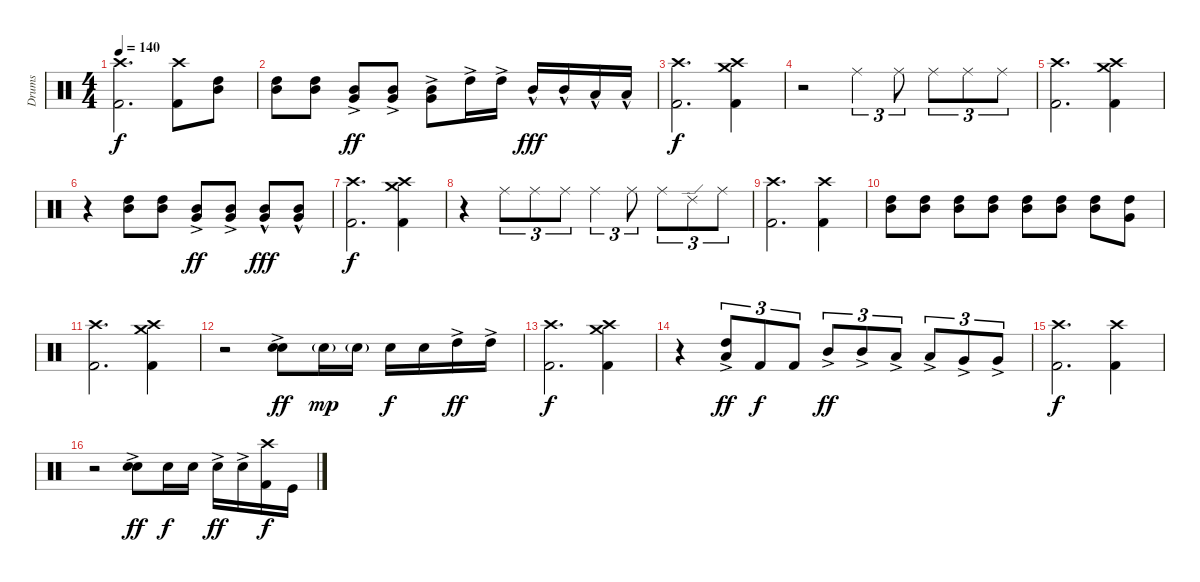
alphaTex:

\track ("Drums" "Drums") {instrument percussion}
\staff {score}
\articulation defaults
\ts (4 4)
\tempo 140
\clef neutral
\ks c
("Crash high (hit)" "Kick (hit) 2").2{d dy f} ("Crash high (hit)" "Kick (hit) 2").8 ("High Tom (hit)" "Mid Tom (hit)").8 |
("High Tom (hit)" "Mid Tom (hit)").8 ("High Tom (hit)" "Mid Tom (hit)").8 ("Mid Tom (hit)"{ac} "Very Low Tom (hit)"{ac}).8{dy ff} ("Mid Tom (hit)"{ac} "Very Low Tom (hit)"{ac}).8 ("Mid Tom (hit)"{ac} "Very Low Tom (hit)"{ac}).8 "High Tom (hit)"{ac}.16 "High Tom (hit)"{ac}.16 "Mid Tom (hit)"{hac}.16{dy fff} "Mid Tom (hit)"{hac}.16 "Low Tom (hit)"{hac}.16 "Low Tom (hit)"{hac}.16 |
("Crash high (hit)" "Kick (hit) 2").2{d dy f} ("Crash medium (hit)" "Crash high (hit)" "Kick (hit) 2").4 |
r.2 "Ride (middle)".4{tu (3 2)} "Ride (middle)".8{tu (3 2)} "Ride (middle)".8{tu (3 2)} "Ride (middle)".8{tu (3 2)} "Ride (middle)".8{tu (3 2)} |
("Crash high (hit)" "Kick (hit) 2").2{d} ("Crash medium (hit)" "Crash high (hit)" "Kick (hit) 2").4 |
r.4 ("High Tom (hit)" "Mid Tom (hit)").8 ("High Tom (hit)" "Mid Tom (hit)").8 ("Mid Tom (hit)"{ac} "Very Low Tom (hit)"{ac}).8{dy ff} ("Mid Tom (hit)"{ac} "Very Low Tom (hit)"{ac}).8 ("Mid Tom (hit)"{hac} "Very Low Tom (hit)"{hac}).8{dy fff} ("Mid Tom (hit)"{hac} "Very Low Tom (hit)"{hac}).8 |
("Crash high (hit)" "Kick (hit) 2").2{d dy f} ("Crash medium (hit)" "Crash high (hit)" "Kick (hit) 2").4 |
r.4 "Ride (middle)".8{tu (3 2)} "Ride (middle)".8{tu (3 2)} "Ride (middle)".8{tu (3 2)} "Ride (middle)".4{tu (3 2)} "Ride (middle)".8{tu (3 2)} "Ride (middle)".8{tu (3 2)} "Ride (edge) 2".8{tu (3 2)} "Ride (middle)".8{tu (3 2)} |
("Crash high (hit)" "Kick (hit) 2").2{d} ("Crash high (hit)" "Kick (hit) 2").4 |
("High Tom (hit)" "Mid Tom (hit)").8 ("High Tom (hit)" "Mid Tom (hit)").8 ("High Tom (hit)" "Mid Tom (hit)").8 ("High Tom (hit)" "Mid Tom (hit)").8 ("High Tom (hit)" "Mid Tom (hit)").8 ("High Tom (hit)" "Mid Tom (hit)").8 ("High Tom (hit)" "Mid Tom (hit)").8 ("High Tom (hit)" "Very Low Tom (hit)").8 |
("Crash high (hit)" "Kick (hit) 2").2{d} ("Crash medium (hit)" "Crash high (hit)" "Kick (hit) 2").4 |
r.2 ("Snare (hit) 2"{ac} "Snare (hit) 2"{ac}).8{dy ff} "Snare (hit) 2"{g}.16{dy mp} "Snare (hit) 2"{g}.16 "Snare (hit) 2".16{dy f} "Snare (hit) 2".16 "High Tom (hit)"{ac}.16{dy ff} "High Tom (hit)"{ac}.16 |
("Crash high (hit)" "Kick (hit) 2").2{d dy f} ("Crash medium (hit)" "Crash high (hit)" "Kick (hit) 2").4 |
r.4 ("High Tom (hit)"{ac} "Low Tom (hit)"{ac}).8{tu (3 2) dy ff} "Kick (hit) 2".8{tu (3 2) dy f} "Kick (hit) 2".8{tu (3 2)} "Mid Tom (hit)"{ac}.8{tu (3 2) dy ff} "Mid Tom (hit)"{ac}.8{tu (3 2)} "Low Tom (hit)"{ac}.8{tu (3 2)} "Low Tom (hit)"{ac}.8{tu (3 2)} "Very Low Tom (hit)"{ac}.8{tu (3 2)} "Very Low Tom (hit)"{ac}.8{tu (3 2)} |
("Crash high (hit)" "Kick (hit) 2").2{d dy f} ("Crash high (hit)" "Kick (hit) 2").4 |
r.2 ("Snare (hit) 2"{ac} "Snare (hit) 2"{ac}).8{dy ff} "Snare (hit) 2".16{dy f} "Snare (hit) 2".16 "Snare (hit) 2"{ac}.16{dy ff} "Snare (hit) 2"{ac}.16 ("Crash high (hit)" "Kick (hit) 2").16{dy f} "Kick (hit)".16
